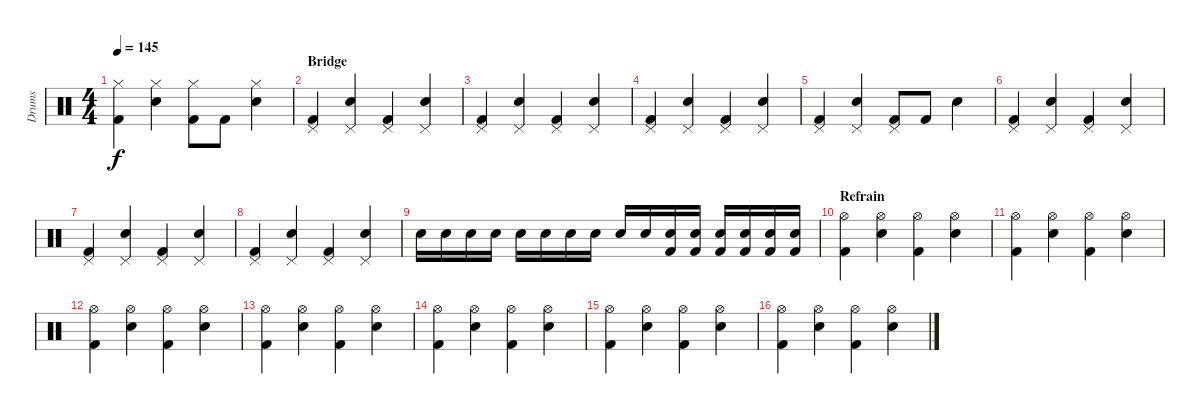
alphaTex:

\track ("Drums" "Drums") {instrument percussion}
\staff {score}
\articulation defaults
\ts (4 4)
\tempo 145
\clef neutral
\ks c
("Kick (hit) 2" "Hi-Hat (closed)").4{dy f} ("Electric Snare (hit)" "Hi-Hat (closed)").4 ("Kick (hit) 2" "Hi-Hat (closed)").8 "Kick (hit) 2".8 ("Electric Snare (hit)" "Hi-Hat (closed)").4 |
\section ("" "Bridge")
("Kick (hit) 2" "Pedal Hi-Hat (hit)").4 ("Electric Snare (hit)" "Pedal Hi-Hat (hit)").4 ("Kick (hit) 2" "Pedal Hi-Hat (hit)").4 ("Electric Snare (hit)" "Pedal Hi-Hat (hit)").4 |
("Kick (hit) 2" "Pedal Hi-Hat (hit)").4 ("Electric Snare (hit)" "Pedal Hi-Hat (hit)").4 ("Kick (hit) 2" "Pedal Hi-Hat (hit)").4 ("Electric Snare (hit)" "Pedal Hi-Hat (hit)").4 |
("Kick (hit) 2" "Pedal Hi-Hat (hit)").4 ("Electric Snare (hit)" "Pedal Hi-Hat (hit)").4 ("Kick (hit) 2" "Pedal Hi-Hat (hit)").4 ("Electric Snare (hit)" "Pedal Hi-Hat (hit)").4 |
("Kick (hit) 2" "Pedal Hi-Hat (hit)").4 ("Electric Snare (hit)" "Pedal Hi-Hat (hit)").4 ("Kick (hit) 2" "Pedal Hi-Hat (hit)").8 "Kick (hit) 2".8 "Electric Snare (hit)".4 |
("Kick (hit) 2" "Pedal Hi-Hat (hit)").4 ("Electric Snare (hit)" "Pedal Hi-Hat (hit)").4 ("Kick (hit) 2" "Pedal Hi-Hat (hit)").4 ("Electric Snare (hit)" "Pedal Hi-Hat (hit)").4 |
("Kick (hit) 2" "Pedal Hi-Hat (hit)").4 ("Electric Snare (hit)" "Pedal Hi-Hat (hit)").4 ("Kick (hit) 2" "Pedal Hi-Hat (hit)").4 ("Electric Snare (hit)" "Pedal Hi-Hat (hit)").4 |
("Kick (hit) 2" "Pedal Hi-Hat (hit)").4 ("Electric Snare (hit)" "Pedal Hi-Hat (hit)").4 ("Kick (hit) 2" "Pedal Hi-Hat (hit)").4 ("Electric Snare (hit)" "Pedal Hi-Hat (hit)").4 |
"Electric Snare (hit)".16 "Electric Snare (hit)".16 "Electric Snare (hit)".16 "Electric Snare (hit)".16 "Electric Snare (hit)".16 "Electric Snare (hit)".16 "Electric Snare (hit)".16 "Electric Snare (hit)".16 "Electric Snare (hit)".16 "Electric Snare (hit)".16 ("Electric Snare (hit)" "Kick (hit) 2").16 ("Electric Snare (hit)" "Kick (hit) 2").16 ("Electric Snare (hit)" "Kick (hit) 2").16 ("Electric Snare (hit)" "Kick (hit) 2").16 ("Electric Snare (hit)" "Kick (hit) 2").16 ("Electric Snare (hit)" "Kick (hit) 2").16 |
\section ("" "Refrain")
("Kick (hit) 2" "Hi-Hat (open)").4 ("Electric Snare (hit)" "Hi-Hat (open)").4 ("Kick (hit) 2" "Hi-Hat (open)").4 ("Electric Snare (hit)" "Hi-Hat (open)").4 |
("Kick (hit) 2" "Hi-Hat (open)").4 ("Electric Snare (hit)" "Hi-Hat (open)").4 ("Kick (hit) 2" "Hi-Hat (open)").4 ("Electric Snare (hit)" "Hi-Hat (open)").4 |
("Kick (hit) 2" "Hi-Hat (open)").4 ("Electric Snare (hit)" "Hi-Hat (open)").4 ("Kick (hit) 2" "Hi-Hat (open)").4 ("Electric Snare (hit)" "Hi-Hat (open)").4 |
("Kick (hit) 2" "Hi-Hat (open)").4 ("Electric Snare (hit)" "Hi-Hat (open)").4 ("Kick (hit) 2" "Hi-Hat (open)").4 ("Electric Snare (hit)" "Hi-Hat (open)").4 |
("Kick (hit) 2" "Hi-Hat (open)").4 ("Electric Snare (hit)" "Hi-Hat (open)").4 ("Kick (hit) 2" "Hi-Hat (open)").4 ("Electric Snare (hit)" "Hi-Hat (open)").4 |
("Kick (hit) 2" "Hi-Hat (open)").4 ("Electric Snare (hit)" "Hi-Hat (open)").4 ("Kick (hit) 2" "Hi-Hat (open)").4 ("Electric Snare (hit)" "Hi-Hat (open)").4 |
("Kick (hit) 2" "Hi-Hat (open)").4 ("Electric Snare (hit)" "Hi-Hat (open)").4 ("Kick (hit) 2" "Hi-Hat (open)").4 ("Electric Snare (hit)" "Hi-Hat (open)").4
